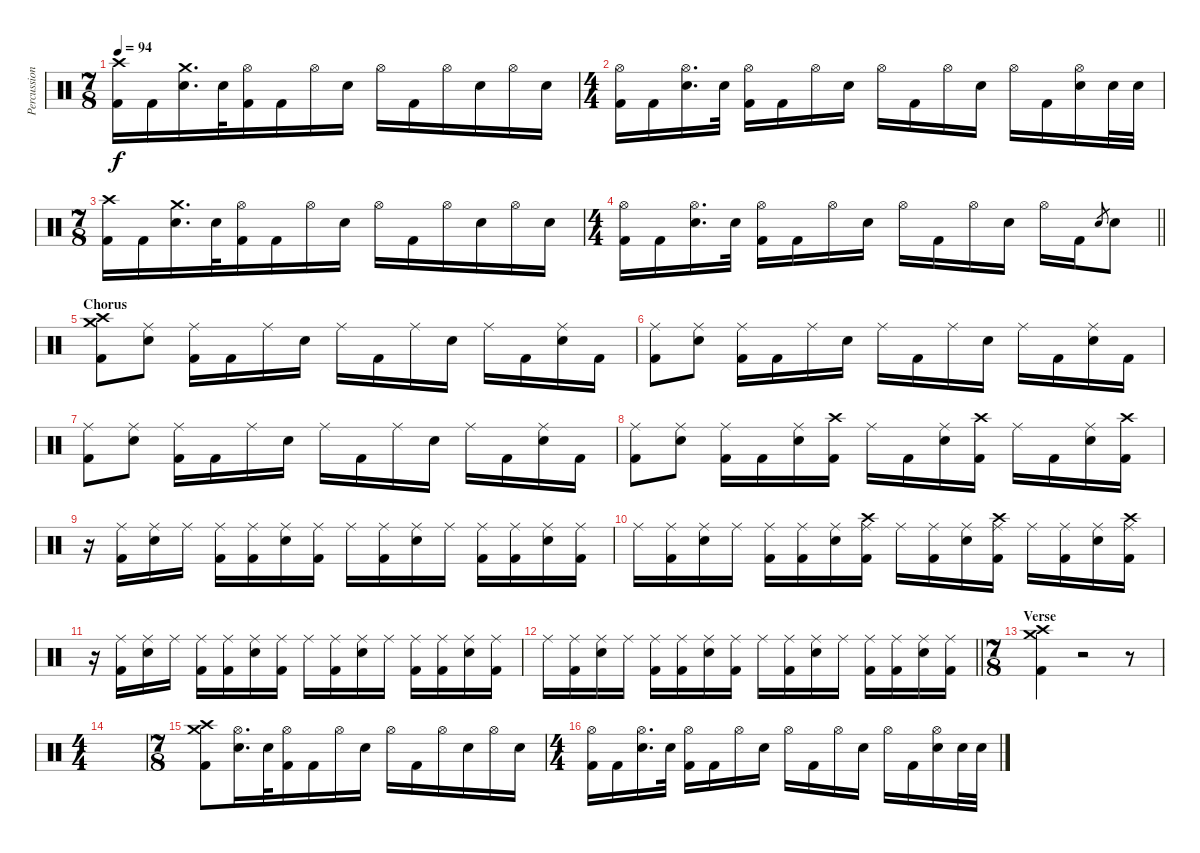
\track ("Percussion" "Percussion") {instrument percussion}
\staff {score}
\articulation defaults
\ts (7 8)
\tempo 94
\clef neutral
\ks c
("Crash high (hit)" "Kick (hit) 2").16{dy f} "Kick (hit) 2".16 ("Crash medium (hit)" "Electric Snare (hit)").16{d} "Electric Snare (hit)".32 ("Hi-Hat (open)" "Kick (hit) 2").16 "Kick (hit) 2".16 "Hi-Hat (open)".16 "Electric Snare (hit)".16 "Hi-Hat (open)".16 "Kick (hit) 2".16 "Hi-Hat (open)".16 "Electric Snare (hit)".16 "Hi-Hat (open)".16 "Electric Snare (hit)".16 |
\ts (4 4)
("Hi-Hat (open)" "Kick (hit) 2").16 "Kick (hit) 2".16 ("Hi-Hat (open)" "Electric Snare (hit)").16{d} "Electric Snare (hit)".32 ("Hi-Hat (open)" "Kick (hit) 2").16 "Kick (hit) 2".16 "Hi-Hat (open)".16 "Electric Snare (hit)".16 "Hi-Hat (open)".16 "Kick (hit) 2".16 "Hi-Hat (open)".16 "Electric Snare (hit)".16 "Hi-Hat (open)".16 "Kick (hit) 2".16 ("Hi-Hat (open)" "Electric Snare (hit)").16 "Electric Snare (hit)".32 "Electric Snare (hit)".32 |
\ts (7 8)
("Crash high (hit)" "Kick (hit) 2").16 "Kick (hit) 2".16 ("Crash medium (hit)" "Electric Snare (hit)").16{d} "Electric Snare (hit)".32 ("Hi-Hat (open)" "Kick (hit) 2").16 "Kick (hit) 2".16 "Hi-Hat (open)".16 "Electric Snare (hit)".16 "Hi-Hat (open)".16 "Kick (hit) 2".16 "Hi-Hat (open)".16 "Electric Snare (hit)".16 "Hi-Hat (open)".16 "Electric Snare (hit)".16 |
\ts (4 4)
\barLineRight lightlight
("Hi-Hat (open)" "Kick (hit) 2").16 "Kick (hit) 2".16 ("Hi-Hat (open)" "Electric Snare (hit)").16{d} "Electric Snare (hit)".32 ("Hi-Hat (open)" "Kick (hit) 2").16 "Kick (hit) 2".16 "Hi-Hat (open)".16 "Electric Snare (hit)".16 "Hi-Hat (open)".16 "Kick (hit) 2".16 "Hi-Hat (open)".16 "Electric Snare (hit)".16 "Hi-Hat (open)".16 "Kick (hit) 2".16 "Electric Snare (hit)".8{gr} "Electric Snare (hit)".8 |
\section ("" "Chorus")
("Crash high (hit)" "Crash medium (hit)" "Kick (hit) 2").8 ("Ride (middle)" "Electric Snare (hit)").8 ("Ride (middle)" "Kick (hit) 2").16 "Kick (hit) 2".16 "Ride (middle)".16 "Electric Snare (hit)".16 "Ride (middle)".16 "Kick (hit) 2".16 "Ride (middle)".16 "Electric Snare (hit)".16 "Ride (middle)".16 "Kick (hit) 2".16 ("Ride (middle)" "Electric Snare (hit)").16 "Kick (hit) 2".16 |
("Ride (middle)" "Kick (hit) 2").8 ("Ride (middle)" "Electric Snare (hit)").8 ("Ride (middle)" "Kick (hit) 2").16 "Kick (hit) 2".16 "Ride (middle)".16 "Electric Snare (hit)".16 "Ride (middle)".16 "Kick (hit) 2".16 "Ride (middle)".16 "Electric Snare (hit)".16 "Ride (middle)".16 "Kick (hit) 2".16 ("Ride (middle)" "Electric Snare (hit)").16 "Kick (hit) 2".16 |
("Ride (middle)" "Kick (hit) 2").8 ("Ride (middle)" "Electric Snare (hit)").8 ("Ride (middle)" "Kick (hit) 2").16 "Kick (hit) 2".16 "Ride (middle)".16 "Electric Snare (hit)".16 "Ride (middle)".16 "Kick (hit) 2".16 "Ride (middle)".16 "Electric Snare (hit)".16 "Ride (middle)".16 "Kick (hit) 2".16 ("Ride (middle)" "Electric Snare (hit)").16 "Kick (hit) 2".16 |
("Ride (middle)" "Kick (hit) 2").8 ("Ride (middle)" "Electric Snare (hit)").8 ("Ride (middle)" "Kick (hit) 2").16 "Kick (hit) 2".16 ("Ride (middle)" "Electric Snare (hit)").16 ("Crash high (hit)" "Kick (hit) 2").16 "Ride (middle)".16 "Kick (hit) 2".16 ("Ride (middle)" "Electric Snare (hit)").16 ("Crash high (hit)" "Kick (hit) 2").16 "Ride (middle)".16 "Kick (hit) 2".16 ("Ride (middle)" "Electric Snare (hit)").16 ("Crash high (hit)" "Kick (hit) 2").16 |
r.16 ("Ride (middle)" "Kick (hit) 2").16 ("Ride (middle)" "Electric Snare (hit)").16 "Ride (middle)".16 ("Ride (middle)" "Kick (hit) 2").16 ("Ride (middle)" "Kick (hit) 2").16 ("Ride (middle)" "Electric Snare (hit)").16 ("Ride (middle)" "Kick (hit) 2").16 "Ride (middle)".16 ("Ride (middle)" "Kick (hit) 2").16 ("Ride (middle)" "Electric Snare (hit)").16 "Ride (middle)".16 ("Ride (middle)" "Kick (hit) 2").16 ("Ride (middle)" "Kick (hit) 2").16 ("Ride (middle)" "Electric Snare (hit)").16 ("Ride (middle)" "Kick (hit) 2").16 |
"Ride (middle)".16 ("Ride (middle)" "Kick (hit) 2").16 ("Ride (middle)" "Electric Snare (hit)").16 "Ride (middle)".16 ("Ride (middle)" "Kick (hit) 2").16 ("Ride (middle)" "Kick (hit) 2").16 ("Ride (middle)" "Electric Snare (hit)").16 ("Crash high (hit)" "Ride (middle)" "Kick (hit) 2").16 "Ride (middle)".16 ("Ride (middle)" "Kick (hit) 2").16 ("Ride (middle)" "Electric Snare (hit)").16 ("Crash high (hit)" "Ride (middle)" "Kick (hit) 2").16 "Ride (middle)".16 ("Ride (middle)" "Kick (hit) 2").16 ("Ride (middle)" "Electric Snare (hit)").16 ("Crash high (hit)" "Ride (middle)" "Kick (hit) 2").16 |
r.16 ("Ride (middle)" "Kick (hit) 2").16 ("Ride (middle)" "Electric Snare (hit)").16 "Ride (middle)".16 ("Ride (middle)" "Kick (hit) 2").16 ("Ride (middle)" "Kick (hit) 2").16 ("Ride (middle)" "Electric Snare (hit)").16 ("Ride (middle)" "Kick (hit) 2").16 "Ride (middle)".16 ("Ride (middle)" "Kick (hit) 2").16 ("Ride (middle)" "Electric Snare (hit)").16 "Ride (middle)".16 ("Ride (middle)" "Kick (hit) 2").16 ("Ride (middle)" "Kick (hit) 2").16 ("Ride (middle)" "Electric Snare (hit)").16 ("Ride (middle)" "Kick (hit) 2").16 |
\barLineRight lightlight "Ride (middle)".16
("Ride (middle)" "Kick (hit) 2").16 ("Ride (middle)" "Electric Snare (hit)").16 "Ride (middle)".16 ("Ride (middle)" "Kick (hit) 2").16 ("Ride (middle)" "Kick (hit) 2").16 ("Ride (middle)" "Electric Snare (hit)").16 ("Ride (middle)" "Kick (hit) 2").16 "Ride (middle)".16 ("Ride (middle)" "Kick (hit) 2").16 ("Ride (middle)" "Electric Snare (hit)").16 "Ride (middle)".16 ("Ride (middle)" "Kick (hit) 2").16 ("Ride (middle)" "Kick (hit) 2").16 ("Ride (middle)" "Electric Snare (hit)").16 ("Ride (middle)" "Kick (hit) 2").16 |
\ts (7 8)
\section ("" "Verse")
("Crash high (hit)" "Crash medium (hit)" "Kick (hit) 2").4 r.2 r.8 |
\ts (4 4)
|
\ts (7 8)
("Crash high (hit)" "Crash medium (hit)" "Kick (hit) 2").8 ("Hi-Hat (open)" "Electric Snare (hit)").16{d} "Electric Snare (hit)".32 ("Hi-Hat (open)" "Kick (hit) 2").16 "Kick (hit) 2".16 "Hi-Hat (open)".16 "Electric Snare (hit)".16 "Hi-Hat (open)".16 "Kick (hit) 2".16 "Hi-Hat (open)".16 "Electric Snare (hit)".16 "Hi-Hat (open)".16 "Electric Snare (hit)".16 |
\ts (4 4)
("Hi-Hat (open)" "Kick (hit) 2").16 "Kick (hit) 2".16 ("Hi-Hat (open)" "Electric Snare (hit)").16{d} "Electric Snare (hit)".32 ("Hi-Hat (open)" "Kick (hit) 2").16 "Kick (hit) 2".16 "Hi-Hat (open)".16 "Electric Snare (hit)".16 "Hi-Hat (open)".16 "Kick (hit) 2".16 "Hi-Hat (open)".16 "Electric Snare (hit)".16 "Hi-Hat (open)".16 "Kick (hit) 2".16 ("Hi-Hat (open)" "Electric Snare (hit)").16 "Electric Snare (hit)".32 "Electric Snare (hit)".32
